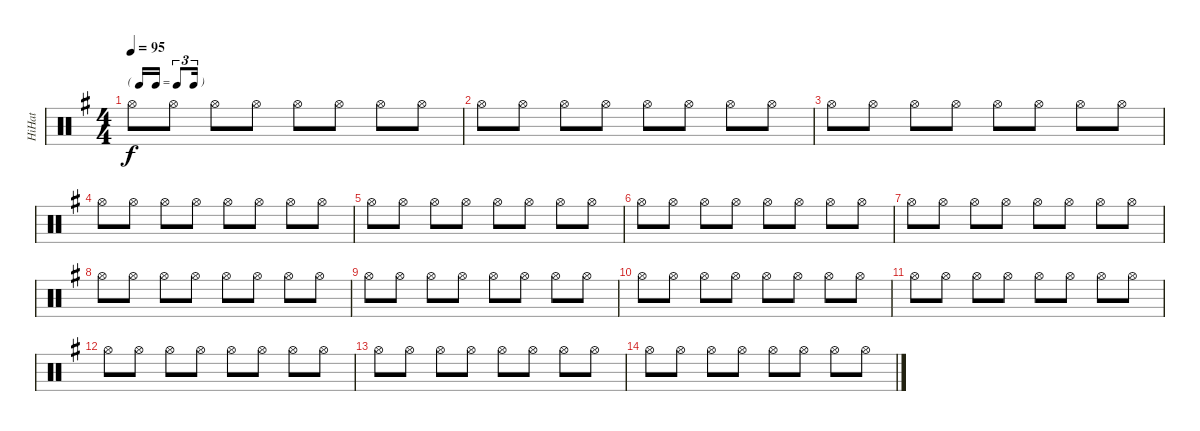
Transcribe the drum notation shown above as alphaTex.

\track ("HiHat" "HiHat") {instrument percussion}
\staff {score}
\articulation defaults
\ts (4 4)
\tf triplet16th
\tempo 95
\clef neutral
\ks eminor "Hi-Hat (open)".8{dy f} "Hi-Hat (open)".8 "Hi-Hat (open)".8 "Hi-Hat (open)".8 "Hi-Hat (open)".8 "Hi-Hat (open)".8 "Hi-Hat (open)".8 "Hi-Hat (open)".8
|
"Hi-Hat (open)".8 "Hi-Hat (open)".8 "Hi-Hat (open)".8 "Hi-Hat (open)".8 "Hi-Hat (open)".8 "Hi-Hat (open)".8 "Hi-Hat (open)".8 "Hi-Hat (open)".8 |
"Hi-Hat (open)".8 "Hi-Hat (open)".8 "Hi-Hat (open)".8 "Hi-Hat (open)".8 "Hi-Hat (open)".8 "Hi-Hat (open)".8 "Hi-Hat (open)".8 "Hi-Hat (open)".8 |
"Hi-Hat (open)".8 "Hi-Hat (open)".8 "Hi-Hat (open)".8 "Hi-Hat (open)".8 "Hi-Hat (open)".8 "Hi-Hat (open)".8 "Hi-Hat (open)".8 "Hi-Hat (open)".8 |
"Hi-Hat (open)".8 "Hi-Hat (open)".8 "Hi-Hat (open)".8 "Hi-Hat (open)".8 "Hi-Hat (open)".8 "Hi-Hat (open)".8 "Hi-Hat (open)".8 "Hi-Hat (open)".8 |
"Hi-Hat (open)".8 "Hi-Hat (open)".8 "Hi-Hat (open)".8 "Hi-Hat (open)".8 "Hi-Hat (open)".8 "Hi-Hat (open)".8 "Hi-Hat (open)".8 "Hi-Hat (open)".8 |
"Hi-Hat (open)".8 "Hi-Hat (open)".8 "Hi-Hat (open)".8 "Hi-Hat (open)".8 "Hi-Hat (open)".8 "Hi-Hat (open)".8 "Hi-Hat (open)".8 "Hi-Hat (open)".8 |
"Hi-Hat (open)".8 "Hi-Hat (open)".8 "Hi-Hat (open)".8 "Hi-Hat (open)".8 "Hi-Hat (open)".8 "Hi-Hat (open)".8 "Hi-Hat (open)".8 "Hi-Hat (open)".8 |
"Hi-Hat (open)".8 "Hi-Hat (open)".8 "Hi-Hat (open)".8 "Hi-Hat (open)".8 "Hi-Hat (open)".8 "Hi-Hat (open)".8 "Hi-Hat (open)".8 "Hi-Hat (open)".8 |
"Hi-Hat (open)".8 "Hi-Hat (open)".8 "Hi-Hat (open)".8 "Hi-Hat (open)".8 "Hi-Hat (open)".8 "Hi-Hat (open)".8 "Hi-Hat (open)".8 "Hi-Hat (open)".8 |
"Hi-Hat (open)".8 "Hi-Hat (open)".8 "Hi-Hat (open)".8 "Hi-Hat (open)".8 "Hi-Hat (open)".8 "Hi-Hat (open)".8 "Hi-Hat (open)".8 "Hi-Hat (open)".8 |
"Hi-Hat (open)".8 "Hi-Hat (open)".8 "Hi-Hat (open)".8 "Hi-Hat (open)".8 "Hi-Hat (open)".8 "Hi-Hat (open)".8 "Hi-Hat (open)".8 "Hi-Hat (open)".8 |
"Hi-Hat (open)".8 "Hi-Hat (open)".8 "Hi-Hat (open)".8 "Hi-Hat (open)".8 "Hi-Hat (open)".8 "Hi-Hat (open)".8 "Hi-Hat (open)".8 "Hi-Hat (open)".8 |
"Hi-Hat (open)".8 "Hi-Hat (open)".8 "Hi-Hat (open)".8 "Hi-Hat (open)".8 "Hi-Hat (open)".8 "Hi-Hat (open)".8 "Hi-Hat (open)".8 "Hi-Hat (open)".8
